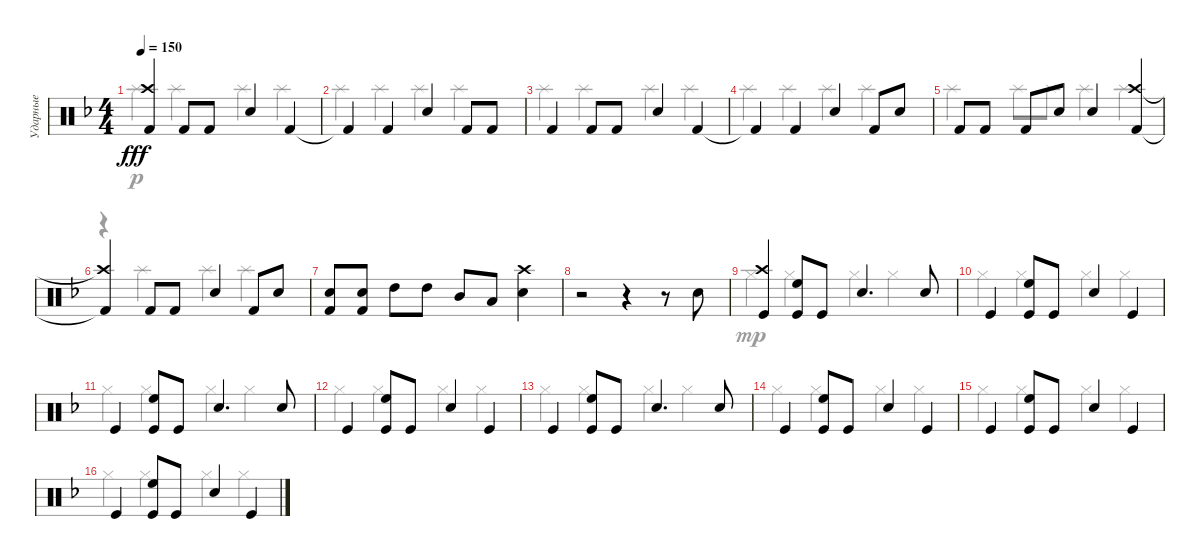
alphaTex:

\track ("Ударные" "Ударные") {instrument percussion}
\staff {score}
\articulation defaults
\voice
\ts (4 4)
\tempo 150
\clef neutral
\ks dminor
("Crash high (hit)" "Kick (hit) 2").4{dy fff} "Kick (hit) 2".8 "Kick (hit) 2".8 "Snare (hit) 2".4 "Kick (hit) 2".4 |
"Kick (hit) 2"{t}.4 "Kick (hit) 2".4 "Snare (hit) 2".4 "Kick (hit) 2".8 "Kick (hit) 2".8 |
"Kick (hit) 2".4 "Kick (hit) 2".8 "Kick (hit) 2".8 "Snare (hit) 2".4 "Kick (hit) 2".4 |
"Kick (hit) 2"{t}.4 "Kick (hit) 2".4 "Snare (hit) 2".4 "Kick (hit) 2".8 "Snare (hit) 2".8 |
"Kick (hit) 2".8 "Kick (hit) 2".8 "Kick (hit) 2".8 "Snare (hit) 2".8 "Snare (hit) 2".4 ("Kick (hit) 2" "Crash high (hit)").4 |
("Kick (hit) 2"{t} "Crash high (hit)"{t}).4 "Kick (hit) 2".8 "Kick (hit) 2".8 "Snare (hit) 2".4 "Kick (hit) 2".8 "Snare (hit) 2".8 |
("Kick (hit) 2" "Snare (hit) 2").8 ("Kick (hit) 2" "Snare (hit) 2").8 "High Tom (hit)".8 "High Tom (hit)".8 "Mid Tom (hit)".8 "Low Tom (hit)".8 ("Crash high (hit)" "Snare (hit) 2").4 |
r.2 r.4 r.8 "Snare (hit) 2".8 |
("Crash high (hit)" "Kick (hit)").4 ("Kick (hit)" "High Floor Tom (hit)").8 "Kick (hit)".8 "Snare (hit) 2".4{d} "Snare (hit) 2".8 |
"Kick (hit)".4 ("Kick (hit)" "High Floor Tom (hit)").8 "Kick (hit)".8 "Snare (hit) 2".4 "Kick (hit)".4 |
"Kick (hit)".4 ("Kick (hit)" "High Floor Tom (hit)").8 "Kick (hit)".8 "Snare (hit) 2".4{d} "Snare (hit) 2".8 |
"Kick (hit)".4 ("Kick (hit)" "High Floor Tom (hit)").8 "Kick (hit)".8 "Snare (hit) 2".4 "Kick (hit)".4 |
"Kick (hit)".4 ("Kick (hit)" "High Floor Tom (hit)").8 "Kick (hit)".8 "Snare (hit) 2".4{d} "Snare (hit) 2".8 |
"Kick (hit)".4 ("Kick (hit)" "High Floor Tom (hit)").8 "Kick (hit)".8 "Snare (hit) 2".4 "Kick (hit)".4 |
"Kick (hit)".4 ("Kick (hit)" "High Floor Tom (hit)").8 "Kick (hit)".8 "Snare (hit) 2".4 "Kick (hit)".4 |
"Kick (hit)".4 ("Kick (hit)" "High Floor Tom (hit)").8 "Kick (hit)".8 "Snare (hit) 2".4 "Kick (hit)".4
\voice
\clef neutral
\ottava regular
\simile none
\ks dminor "Splash (hit)".4{dy p} "Splash (hit)".4 "Splash (hit)".4 "Splash (hit)".4
|
"Splash (hit)".4 "Splash (hit)".4 "Splash (hit)".4 "Splash (hit)".4 |
"Splash (hit)".4 "Splash (hit)".4 "Splash (hit)".4 "Splash (hit)".4 |
"Splash (hit)".4 "Splash (hit)".4 "Splash (hit)".4 "Splash (hit)".4 |
"Splash (hit)".4 "Splash (hit)".8 "Splash (hit)".8 "Splash (hit)".4 "Splash (hit)".4 |
r.4 "Splash (hit)".4 "Splash (hit)".4 "Splash (hit)".4 |
|
|
"Hi-Hat (closed)".4{dy mp} "Hi-Hat (closed)".4 "Hi-Hat (closed)".4 "Hi-Hat (closed)".4 |
"Hi-Hat (closed)".4 "Hi-Hat (closed)".4 "Hi-Hat (closed)".4 "Hi-Hat (closed)".4 |
"Hi-Hat (closed)".4 "Hi-Hat (closed)".4 "Hi-Hat (closed)".4 "Hi-Hat (closed)".4 |
"Hi-Hat (closed)".4 "Hi-Hat (closed)".4 "Hi-Hat (closed)".4 "Hi-Hat (closed)".4 |
"Hi-Hat (closed)".4 "Hi-Hat (closed)".4 "Hi-Hat (closed)".4 "Hi-Hat (closed)".4 |
"Hi-Hat (closed)".4 "Hi-Hat (closed)".4 "Hi-Hat (closed)".4 "Hi-Hat (closed)".4 |
"Hi-Hat (closed)".4 "Hi-Hat (closed)".4 "Hi-Hat (closed)".4 "Hi-Hat (closed)".4 |
"Hi-Hat (closed)".4 "Hi-Hat (closed)".4 "Hi-Hat (closed)".4 "Hi-Hat (closed)".4
